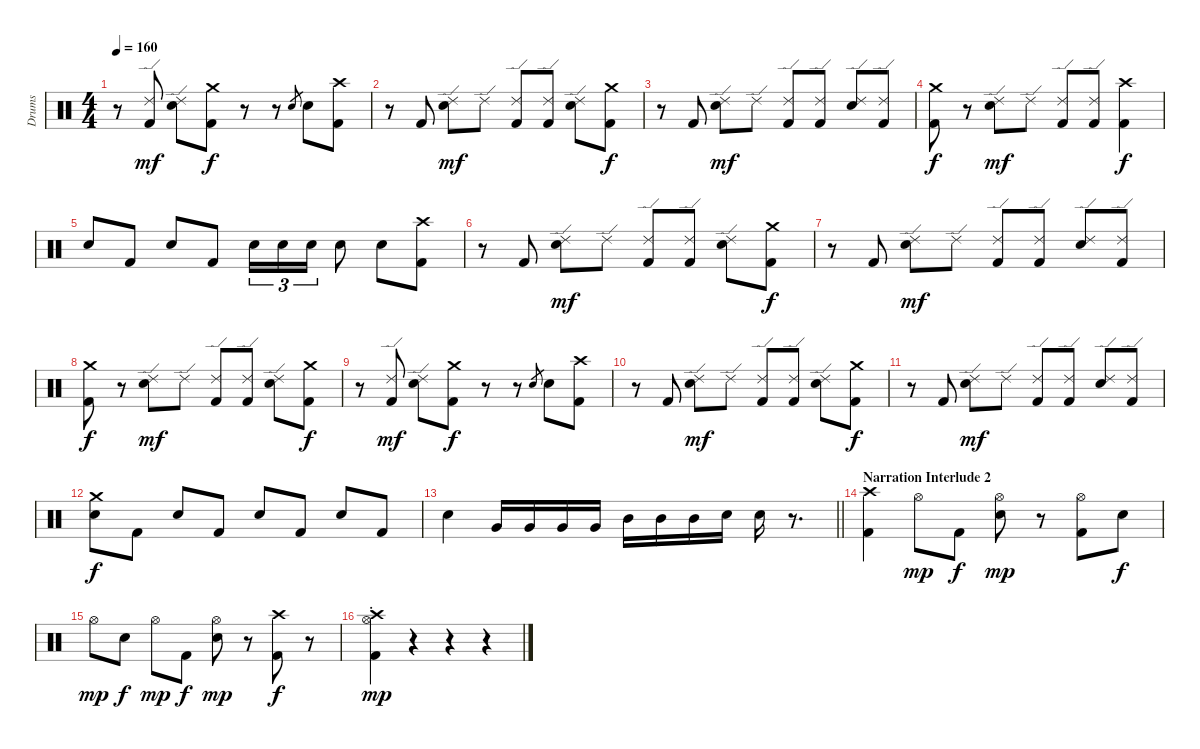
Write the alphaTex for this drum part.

\track ("Drums" "Drums") {instrument percussion}
\staff {score}
\articulation defaults
\ts (4 4)
\tempo 160
\clef neutral
\ks c
r.8{dy f} ("Ride (edge) 2" "Kick (hit) 2").8{dy mf} ("Ride (edge) 2" "Electric Snare (hit)").8 ("Crash medium (hit)" "Kick (hit) 2").8{dy f} r.8 r.8 "Electric Snare (hit)".8{gr} "Electric Snare (hit)".8 ("Crash high (hit)" "Kick (hit) 2").8 |
r.8 "Kick (hit) 2".8 ("Ride (edge) 2" "Electric Snare (hit)").8{dy mf} "Ride (edge) 2".8 ("Ride (edge) 2" "Kick (hit) 2").8 ("Ride (edge) 2" "Kick (hit) 2").8 ("Ride (edge) 2" "Electric Snare (hit)").8 ("Crash medium (hit)" "Kick (hit) 2").8{dy f} |
r.8 "Kick (hit) 2".8 ("Ride (edge) 2" "Electric Snare (hit)").8{dy mf} "Ride (edge) 2".8 ("Ride (edge) 2" "Kick (hit) 2").8 ("Ride (edge) 2" "Kick (hit) 2").8 ("Ride (edge) 2" "Electric Snare (hit)").8 ("Ride (edge) 2" "Kick (hit) 2").8 |
("Crash medium (hit)" "Kick (hit) 2").8{dy f} r.8 ("Ride (edge) 2" "Electric Snare (hit)").8{dy mf} "Ride (edge) 2".8 ("Ride (edge) 2" "Kick (hit) 2").8 ("Ride (edge) 2" "Kick (hit) 2").8 ("Crash high (hit)" "Kick (hit) 2").4{dy f} |
"Electric Snare (hit)".8 "Kick (hit) 2".8 "Electric Snare (hit)".8 "Kick (hit) 2".8 "Electric Snare (hit)".16{tu (3 2)} "Electric Snare (hit)".16{tu (3 2)} "Electric Snare (hit)".16{tu (3 2)} "Electric Snare (hit)".8 "Electric Snare (hit)".8 ("Crash high (hit)" "Kick (hit) 2").8 |
r.8 "Kick (hit) 2".8 ("Ride (edge) 2" "Electric Snare (hit)").8{dy mf} "Ride (edge) 2".8 ("Ride (edge) 2" "Kick (hit) 2").8 ("Ride (edge) 2" "Kick (hit) 2").8 ("Ride (edge) 2" "Electric Snare (hit)").8 ("Crash medium (hit)" "Kick (hit) 2").8{dy f} |
r.8 "Kick (hit) 2".8 ("Ride (edge) 2" "Electric Snare (hit)").8{dy mf} "Ride (edge) 2".8 ("Ride (edge) 2" "Kick (hit) 2").8 ("Ride (edge) 2" "Kick (hit) 2").8 ("Ride (edge) 2" "Electric Snare (hit)").8 ("Ride (edge) 2" "Kick (hit) 2").8 |
("Crash medium (hit)" "Kick (hit) 2").8{dy f} r.8 ("Ride (edge) 2" "Electric Snare (hit)").8{dy mf} "Ride (edge) 2".8 ("Ride (edge) 2" "Kick (hit) 2").8 ("Ride (edge) 2" "Kick (hit) 2").8 ("Ride (edge) 2" "Electric Snare (hit)").8 ("Crash medium (hit)" "Kick (hit) 2").8{dy f} |
r.8 ("Ride (edge) 2" "Kick (hit) 2").8{dy mf} ("Ride (edge) 2" "Electric Snare (hit)").8 ("Crash medium (hit)" "Kick (hit) 2").8{dy f} r.8 r.8 "Electric Snare (hit)".8{gr} "Electric Snare (hit)".8 ("Crash high (hit)" "Kick (hit) 2").8 |
r.8 "Kick (hit) 2".8 ("Ride (edge) 2" "Electric Snare (hit)").8{dy mf} "Ride (edge) 2".8 ("Ride (edge) 2" "Kick (hit) 2").8 ("Ride (edge) 2" "Kick (hit) 2").8 ("Ride (edge) 2" "Electric Snare (hit)").8 ("Crash medium (hit)" "Kick (hit) 2").8{dy f} |
r.8 "Kick (hit) 2".8 ("Ride (edge) 2" "Electric Snare (hit)").8{dy mf} "Ride (edge) 2".8 ("Ride (edge) 2" "Kick (hit) 2").8 ("Ride (edge) 2" "Kick (hit) 2").8 ("Ride (edge) 2" "Electric Snare (hit)").8 ("Ride (edge) 2" "Kick (hit) 2").8 |
("Crash medium (hit)" "Electric Snare (hit)").8{dy f} "Kick (hit) 2".8 "Electric Snare (hit)".8 "Kick (hit) 2".8 "Electric Snare (hit)".8 "Kick (hit) 2".8 "Electric Snare (hit)".8 "Kick (hit) 2".8 |
\barLineRight lightlight "Electric Snare (hit)".4 "Very Low Tom (hit)".16 "Very Low Tom (hit)".16 "Very Low Tom (hit)".16 "Very Low Tom (hit)".16 "Mid Tom (hit)".16 "Mid Tom (hit)".16 "Mid Tom (hit)".16 "Electric Snare (hit)".16 "Electric Snare (hit)".16
r.8{d} |
\section ("" "Narration Interlude 2")
("Crash high (hit)" "Kick (hit) 2").4{volume 15} "Hi-Hat (open)".8{dy mp} "Kick (hit) 2".8{dy f} ("Hi-Hat (open)" "Electric Snare (hit)").8{dy mp} r.8 ("Hi-Hat (open)" "Kick (hit) 2").8 "Electric Snare (hit)".8{dy f} |
"Hi-Hat (open)".8{dy mp} "Electric Snare (hit)".8{dy f} "Hi-Hat (open)".8{dy mp} "Kick (hit) 2".8{dy f} ("Hi-Hat (open)" "Electric Snare (hit)").8{dy mp} r.8 ("Crash high (hit)" "Kick (hit) 2").8{dy f} r.8 |
("Crash high (hit)"{st} "Hi-Hat (open)"{st} "Kick (hit) 2"{st}).4{dy mp} r.4 r.4 r.4
